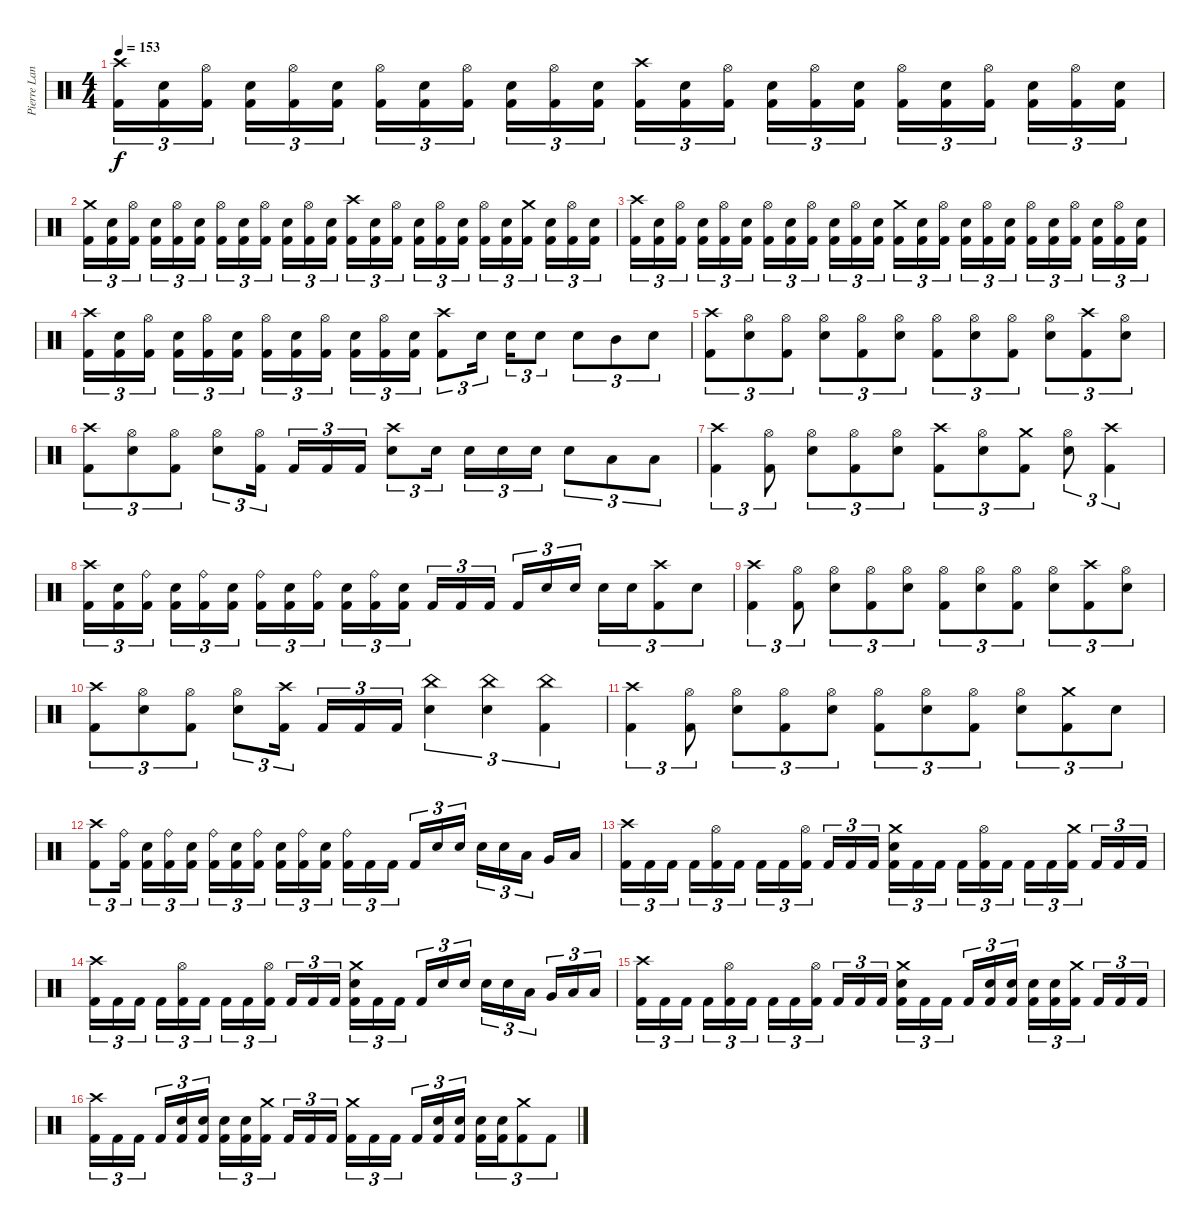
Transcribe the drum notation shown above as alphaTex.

\track ("Pierre Langlois (Drums)" "Pierre Lan") {instrument percussion}
\staff {score}
\articulation defaults
\ts (4 4)
\tempo 153
\clef neutral
\ks c
("Crash high (hit)" "Kick (hit) 2").16{tu (3 2) dy f} ("Snare (hit) 2" "Kick (hit) 2").16{tu (3 2)} ("Hi-Hat (open)" "Kick (hit) 2").16{tu (3 2)} ("Snare (hit) 2" "Kick (hit) 2").16{tu (3 2)} ("Hi-Hat (open)" "Kick (hit) 2").16{tu (3 2)} ("Snare (hit) 2" "Kick (hit) 2").16{tu (3 2)} ("Hi-Hat (open)" "Kick (hit) 2").16{tu (3 2)} ("Snare (hit) 2" "Kick (hit) 2").16{tu (3 2)} ("Hi-Hat (open)" "Kick (hit) 2").16{tu (3 2)} ("Snare (hit) 2" "Kick (hit) 2").16{tu (3 2)} ("Hi-Hat (open)" "Kick (hit) 2").16{tu (3 2)} ("Snare (hit) 2" "Kick (hit) 2").16{tu (3 2)} ("Crash high (hit)" "Kick (hit) 2").16{tu (3 2)} ("Snare (hit) 2" "Kick (hit) 2").16{tu (3 2)} ("Hi-Hat (open)" "Kick (hit) 2").16{tu (3 2)} ("Snare (hit) 2" "Kick (hit) 2").16{tu (3 2)} ("Hi-Hat (open)" "Kick (hit) 2").16{tu (3 2)} ("Snare (hit) 2" "Kick (hit) 2").16{tu (3 2)} ("Hi-Hat (open)" "Kick (hit) 2").16{tu (3 2)} ("Snare (hit) 2" "Kick (hit) 2").16{tu (3 2)} ("Hi-Hat (open)" "Kick (hit) 2").16{tu (3 2)} ("Snare (hit) 2" "Kick (hit) 2").16{tu (3 2)} ("Hi-Hat (open)" "Kick (hit) 2").16{tu (3 2)} ("Snare (hit) 2" "Kick (hit) 2").16{tu (3 2)} |
("Crash medium (hit)" "Kick (hit) 2").16{tu (3 2)} ("Snare (hit) 2" "Kick (hit) 2").16{tu (3 2)} ("Hi-Hat (open)" "Kick (hit) 2").16{tu (3 2)} ("Snare (hit) 2" "Kick (hit) 2").16{tu (3 2)} ("Hi-Hat (open)" "Kick (hit) 2").16{tu (3 2)} ("Snare (hit) 2" "Kick (hit) 2").16{tu (3 2)} ("Hi-Hat (open)" "Kick (hit) 2").16{tu (3 2)} ("Snare (hit) 2" "Kick (hit) 2").16{tu (3 2)} ("Hi-Hat (open)" "Kick (hit) 2").16{tu (3 2)} ("Snare (hit) 2" "Kick (hit) 2").16{tu (3 2)} ("Hi-Hat (open)" "Kick (hit) 2").16{tu (3 2)} ("Snare (hit) 2" "Kick (hit) 2").16{tu (3 2)} ("Crash high (hit)" "Kick (hit) 2").16{tu (3 2)} ("Snare (hit) 2" "Kick (hit) 2").16{tu (3 2)} ("Hi-Hat (open)" "Kick (hit) 2").16{tu (3 2)} ("Snare (hit) 2" "Kick (hit) 2").16{tu (3 2)} ("Hi-Hat (open)" "Kick (hit) 2").16{tu (3 2)} ("Snare (hit) 2" "Kick (hit) 2").16{tu (3 2)} ("Hi-Hat (open)" "Kick (hit) 2").16{tu (3 2)} ("Snare (hit) 2" "Kick (hit) 2").16{tu (3 2)} ("Crash medium (hit)" "Kick (hit) 2").16{tu (3 2)} ("Snare (hit) 2" "Kick (hit) 2").16{tu (3 2)} ("Hi-Hat (open)" "Kick (hit) 2").16{tu (3 2)} ("Snare (hit) 2" "Kick (hit) 2").16{tu (3 2)} |
("Crash high (hit)" "Kick (hit) 2").16{tu (3 2)} ("Snare (hit) 2" "Kick (hit) 2").16{tu (3 2)} ("Hi-Hat (open)" "Kick (hit) 2").16{tu (3 2)} ("Snare (hit) 2" "Kick (hit) 2").16{tu (3 2)} ("Hi-Hat (open)" "Kick (hit) 2").16{tu (3 2)} ("Snare (hit) 2" "Kick (hit) 2").16{tu (3 2)} ("Hi-Hat (open)" "Kick (hit) 2").16{tu (3 2)} ("Snare (hit) 2" "Kick (hit) 2").16{tu (3 2)} ("Hi-Hat (open)" "Kick (hit) 2").16{tu (3 2)} ("Snare (hit) 2" "Kick (hit) 2").16{tu (3 2)} ("Hi-Hat (open)" "Kick (hit) 2").16{tu (3 2)} ("Snare (hit) 2" "Kick (hit) 2").16{tu (3 2)} ("Crash medium (hit)" "Kick (hit) 2").16{tu (3 2)} ("Snare (hit) 2" "Kick (hit) 2").16{tu (3 2)} ("Hi-Hat (open)" "Kick (hit) 2").16{tu (3 2)} ("Snare (hit) 2" "Kick (hit) 2").16{tu (3 2)} ("Hi-Hat (open)" "Kick (hit) 2").16{tu (3 2)} ("Snare (hit) 2" "Kick (hit) 2").16{tu (3 2)} ("Hi-Hat (open)" "Kick (hit) 2").16{tu (3 2)} ("Snare (hit) 2" "Kick (hit) 2").16{tu (3 2)} ("Hi-Hat (open)" "Kick (hit) 2").16{tu (3 2)} ("Snare (hit) 2" "Kick (hit) 2").16{tu (3 2)} ("Hi-Hat (open)" "Kick (hit) 2").16{tu (3 2)} ("Snare (hit) 2" "Kick (hit) 2").16{tu (3 2)} |
("Crash high (hit)" "Kick (hit) 2").16{tu (3 2)} ("Snare (hit) 2" "Kick (hit) 2").16{tu (3 2)} ("Hi-Hat (open)" "Kick (hit) 2").16{tu (3 2)} ("Snare (hit) 2" "Kick (hit) 2").16{tu (3 2)} ("Hi-Hat (open)" "Kick (hit) 2").16{tu (3 2)} ("Snare (hit) 2" "Kick (hit) 2").16{tu (3 2)} ("Hi-Hat (open)" "Kick (hit) 2").16{tu (3 2)} ("Snare (hit) 2" "Kick (hit) 2").16{tu (3 2)} ("Hi-Hat (open)" "Kick (hit) 2").16{tu (3 2)} ("Snare (hit) 2" "Kick (hit) 2").16{tu (3 2)} ("Hi-Hat (open)" "Kick (hit) 2").16{tu (3 2)} ("Snare (hit) 2" "Kick (hit) 2").16{tu (3 2)} ("Crash high (hit)" "Kick (hit) 2").8{tu (3 2)} "Snare (hit) 2".16{tu (3 2)} "Snare (hit) 2".16{tu (3 2)} "Snare (hit) 2".8{tu (3 2)} "Snare (hit) 2".8{tu (3 2)} "Mid Tom (hit)".8{tu (3 2)} "Snare (hit) 2".8{tu (3 2)} |
("Crash high (hit)" "Kick (hit) 2").8{tu (3 2)} ("Hi-Hat (open)" "Snare (hit) 2").8{tu (3 2)} ("Hi-Hat (open)" "Kick (hit) 2").8{tu (3 2)} ("Hi-Hat (open)" "Snare (hit) 2").8{tu (3 2)} ("Hi-Hat (open)" "Kick (hit) 2").8{tu (3 2)} ("Hi-Hat (open)" "Snare (hit) 2").8{tu (3 2)} ("Hi-Hat (open)" "Kick (hit) 2").8{tu (3 2)} ("Hi-Hat (open)" "Snare (hit) 2").8{tu (3 2)} ("Hi-Hat (open)" "Kick (hit) 2").8{tu (3 2)} ("Hi-Hat (open)" "Snare (hit) 2").8{tu (3 2)} ("Crash high (hit)" "Kick (hit) 2").8{tu (3 2)} ("Hi-Hat (open)" "Snare (hit) 2").8{tu (3 2)} |
("Crash high (hit)" "Kick (hit) 2").8{tu (3 2)} ("Hi-Hat (open)" "Snare (hit) 2").8{tu (3 2)} ("Hi-Hat (open)" "Kick (hit) 2").8{tu (3 2)} ("Hi-Hat (open)" "Snare (hit) 2").8{tu (3 2)} ("Hi-Hat (open)" "Kick (hit) 2").16{tu (3 2)} "Kick (hit) 2".16{tu (3 2)} "Kick (hit) 2".16{tu (3 2)} "Kick (hit) 2".16{tu (3 2)} ("Crash high (hit)" "Snare (hit) 2").8{tu (3 2)} "Snare (hit) 2".16{tu (3 2)} "Snare (hit) 2".16{tu (3 2)} "Snare (hit) 2".16{tu (3 2)} "Snare (hit) 2".16{tu (3 2)} "Snare (hit) 2".8{tu (3 2)} "Low Tom (hit)".8{tu (3 2)} "Low Floor Tom (hit)".8{tu (3 2)} |
("Crash high (hit)" "Kick (hit) 2").4{tu (3 2)} ("Hi-Hat (open)" "Kick (hit) 2").8{tu (3 2)} ("Hi-Hat (open)" "Snare (hit) 2").8{tu (3 2)} ("Hi-Hat (open)" "Kick (hit) 2").8{tu (3 2)} ("Hi-Hat (open)" "Snare (hit) 2").8{tu (3 2)} ("Crash high (hit)" "Kick (hit) 2").8{tu (3 2)} ("Hi-Hat (open)" "Snare (hit) 2").8{tu (3 2)} ("Crash medium (hit)" "Kick (hit) 2").8{tu (3 2)} ("Hi-Hat (open)" "Snare (hit) 2").8{tu (3 2)} ("Crash high (hit)" "Kick (hit) 2").4{tu (3 2)} |
("Crash high (hit)" "Kick (hit) 2").16{tu (3 2)} ("Snare (hit) 2" "Kick (hit) 2").16{tu (3 2)} ("Ride (bell)" "Kick (hit) 2").16{tu (3 2)} ("Snare (hit) 2" "Kick (hit) 2").16{tu (3 2)} ("Ride (bell)" "Kick (hit) 2").16{tu (3 2)} ("Snare (hit) 2" "Kick (hit) 2").16{tu (3 2)} ("Ride (bell)" "Kick (hit) 2").16{tu (3 2)} ("Snare (hit) 2" "Kick (hit) 2").16{tu (3 2)} ("Ride (bell)" "Kick (hit) 2").16{tu (3 2)} ("Snare (hit) 2" "Kick (hit) 2").16{tu (3 2)} ("Ride (bell)" "Kick (hit) 2").16{tu (3 2)} ("Snare (hit) 2" "Kick (hit) 2").16{tu (3 2)} "Kick (hit) 2".16{tu (3 2)} "Kick (hit) 2".16{tu (3 2)} "Kick (hit) 2".16{tu (3 2)} "Kick (hit) 2".16{tu (3 2)} "Snare (hit) 2".16{tu (3 2)} "Snare (hit) 2".16{tu (3 2)} "Snare (hit) 2".16{tu (3 2)} "Snare (hit) 2".16{tu (3 2)} ("Crash high (hit)" "Kick (hit) 2").8{tu (3 2)} "Snare (hit) 2".8{tu (3 2)} |
("Crash high (hit)" "Kick (hit) 2").4{tu (3 2)} ("Hi-Hat (open)" "Kick (hit) 2").8{tu (3 2)} ("Hi-Hat (open)" "Snare (hit) 2").8{tu (3 2)} ("Hi-Hat (open)" "Kick (hit) 2").8{tu (3 2)} ("Hi-Hat (open)" "Snare (hit) 2").8{tu (3 2)} ("Hi-Hat (open)" "Kick (hit) 2").8{tu (3 2)} ("Hi-Hat (open)" "Snare (hit) 2").8{tu (3 2)} ("Hi-Hat (open)" "Kick (hit) 2").8{tu (3 2)} ("Hi-Hat (open)" "Snare (hit) 2").8{tu (3 2)} ("Crash high (hit)" "Kick (hit) 2").8{tu (3 2)} ("Hi-Hat (open)" "Snare (hit) 2").8{tu (3 2)} |
("Crash high (hit)" "Kick (hit) 2").8{tu (3 2)} ("Hi-Hat (open)" "Snare (hit) 2").8{tu (3 2)} ("Hi-Hat (open)" "Kick (hit) 2").8{tu (3 2)} ("Hi-Hat (open)" "Snare (hit) 2").8{tu (3 2)} ("Crash high (hit)" "Kick (hit) 2").16{tu (3 2)} "Kick (hit) 2".16{tu (3 2)} "Kick (hit) 2".16{tu (3 2)} "Kick (hit) 2".16{tu (3 2)} ("China (hit)" "Snare (hit) 2").4{tu (3 2)} ("China (hit)" "Snare (hit) 2").4{tu (3 2)} ("China (hit)" "Kick (hit) 2").4{tu (3 2)} |
("Crash high (hit)" "Kick (hit) 2").4{tu (3 2)} ("Hi-Hat (open)" "Kick (hit) 2").8{tu (3 2)} ("Hi-Hat (open)" "Snare (hit) 2").8{tu (3 2)} ("Hi-Hat (open)" "Kick (hit) 2").8{tu (3 2)} ("Hi-Hat (open)" "Snare (hit) 2").8{tu (3 2)} ("Hi-Hat (open)" "Kick (hit) 2").8{tu (3 2)} ("Hi-Hat (open)" "Snare (hit) 2").8{tu (3 2)} ("Hi-Hat (open)" "Kick (hit) 2").8{tu (3 2)} ("Hi-Hat (open)" "Snare (hit) 2").8{tu (3 2)} ("Crash medium (hit)" "Kick (hit) 2").8{tu (3 2)} "Snare (hit) 2".8{tu (3 2)} |
("Crash high (hit)" "Kick (hit) 2").8{tu (3 2)} ("Ride (bell)" "Kick (hit) 2").16{tu (3 2)} ("Snare (hit) 2" "Kick (hit) 2").16{tu (3 2)} ("Ride (bell)" "Kick (hit) 2").16{tu (3 2)} ("Snare (hit) 2" "Kick (hit) 2").16{tu (3 2)} ("Ride (bell)" "Kick (hit) 2").16{tu (3 2)} ("Snare (hit) 2" "Kick (hit) 2").16{tu (3 2)} ("Ride (bell)" "Kick (hit) 2").16{tu (3 2)} ("Snare (hit) 2" "Kick (hit) 2").16{tu (3 2)} ("Ride (bell)" "Kick (hit) 2").16{tu (3 2)} ("Snare (hit) 2" "Kick (hit) 2").16{tu (3 2)} ("Ride (bell)" "Kick (hit) 2").16{tu (3 2)} "Kick (hit) 2".16{tu (3 2)} "Kick (hit) 2".16{tu (3 2)} "Kick (hit) 2".16{tu (3 2)} "Snare (hit) 2".16{tu (3 2)} "Snare (hit) 2".16{tu (3 2)} "Snare (hit) 2".16{tu (3 2)} "Snare (hit) 2".16{tu (3 2)} "Low Tom (hit)".16{tu (3 2)} "Very Low Tom (hit)".16 "Low Floor Tom (hit)".16 |
("Crash high (hit)" "Kick (hit) 2").16{tu (3 2)} "Kick (hit) 2".16{tu (3 2)} "Kick (hit) 2".16{tu (3 2)} "Kick (hit) 2".16{tu (3 2)} ("Hi-Hat (open)" "Kick (hit) 2").16{tu (3 2)} "Kick (hit) 2".16{tu (3 2)} "Kick (hit) 2".16{tu (3 2)} "Kick (hit) 2".16{tu (3 2)} ("Hi-Hat (open)" "Kick (hit) 2").16{tu (3 2)} "Kick (hit) 2".16{tu (3 2)} "Kick (hit) 2".16{tu (3 2)} "Kick (hit) 2".16{tu (3 2)} ("Crash medium (hit)" "Snare (hit) 2" "Kick (hit) 2").16{tu (3 2)} "Kick (hit) 2".16{tu (3 2)} "Kick (hit) 2".16{tu (3 2)} "Kick (hit) 2".16{tu (3 2)} ("Hi-Hat (open)" "Kick (hit) 2").16{tu (3 2)} "Kick (hit) 2".16{tu (3 2)} "Kick (hit) 2".16{tu (3 2)} "Kick (hit) 2".16{tu (3 2)} ("Crash medium (hit)" "Kick (hit) 2").16{tu (3 2)} "Kick (hit) 2".16{tu (3 2)} "Kick (hit) 2".16{tu (3 2)} "Kick (hit) 2".16{tu (3 2)} |
("Crash high (hit)" "Kick (hit) 2").16{tu (3 2)} "Kick (hit) 2".16{tu (3 2)} "Kick (hit) 2".16{tu (3 2)} "Kick (hit) 2".16{tu (3 2)} ("Hi-Hat (open)" "Kick (hit) 2").16{tu (3 2)} "Kick (hit) 2".16{tu (3 2)} "Kick (hit) 2".16{tu (3 2)} "Kick (hit) 2".16{tu (3 2)} ("Hi-Hat (open)" "Kick (hit) 2").16{tu (3 2)} "Kick (hit) 2".16{tu (3 2)} "Kick (hit) 2".16{tu (3 2)} "Kick (hit) 2".16{tu (3 2)} ("Crash medium (hit)" "Snare (hit) 2" "Kick (hit) 2").16{tu (3 2)} "Kick (hit) 2".16{tu (3 2)} "Kick (hit) 2".16{tu (3 2)} "Kick (hit) 2".16{tu (3 2)} "Snare (hit) 2".16{tu (3 2)} "Snare (hit) 2".16{tu (3 2)} "Snare (hit) 2".16{tu (3 2)} "Snare (hit) 2".16{tu (3 2)} "Low Tom (hit)".16{tu (3 2)} "Very Low Tom (hit)".16{tu (3 2)} "Low Floor Tom (hit)".16{tu (3 2)} "Low Floor Tom (hit)".16{tu (3 2)} |
("Crash high (hit)" "Kick (hit) 2").16{tu (3 2)} "Kick (hit) 2".16{tu (3 2)} "Kick (hit) 2".16{tu (3 2)} "Kick (hit) 2".16{tu (3 2)} ("Hi-Hat (open)" "Kick (hit) 2").16{tu (3 2)} "Kick (hit) 2".16{tu (3 2)} "Kick (hit) 2".16{tu (3 2)} "Kick (hit) 2".16{tu (3 2)} ("Hi-Hat (open)" "Kick (hit) 2").16{tu (3 2)} "Kick (hit) 2".16{tu (3 2)} "Kick (hit) 2".16{tu (3 2)} "Kick (hit) 2".16{tu (3 2)} ("Crash medium (hit)" "Snare (hit) 2" "Kick (hit) 2").16{tu (3 2)} "Kick (hit) 2".16{tu (3 2)} "Kick (hit) 2".16{tu (3 2)} "Kick (hit) 2".16{tu (3 2)} ("Snare (hit) 2" "Kick (hit) 2").16{tu (3 2)} ("Snare (hit) 2" "Kick (hit) 2").16{tu (3 2)} ("Snare (hit) 2" "Kick (hit) 2").16{tu (3 2)} ("Snare (hit) 2" "Kick (hit) 2").16{tu (3 2)} ("Crash medium (hit)" "Kick (hit) 2").16{tu (3 2)} "Kick (hit) 2".16{tu (3 2)} "Kick (hit) 2".16{tu (3 2)} "Kick (hit) 2".16{tu (3 2)} |
("Crash high (hit)" "Kick (hit) 2").16{tu (3 2)} "Kick (hit) 2".16{tu (3 2)} "Kick (hit) 2".16{tu (3 2)} "Kick (hit) 2".16{tu (3 2)} ("Snare (hit) 2" "Kick (hit) 2").16{tu (3 2)} ("Snare (hit) 2" "Kick (hit) 2").16{tu (3 2)} ("Snare (hit) 2" "Kick (hit) 2").16{tu (3 2)} ("Snare (hit) 2" "Kick (hit) 2").16{tu (3 2)} ("Crash medium (hit)" "Kick (hit) 2").16{tu (3 2)} "Kick (hit) 2".16{tu (3 2)} "Kick (hit) 2".16{tu (3 2)} "Kick (hit) 2".16{tu (3 2)} ("Crash medium (hit)" "Kick (hit) 2").16{tu (3 2)} "Kick (hit) 2".16{tu (3 2)} "Kick (hit) 2".16{tu (3 2)} "Kick (hit) 2".16{tu (3 2)} ("Snare (hit) 2" "Kick (hit) 2").16{tu (3 2)} ("Snare (hit) 2" "Kick (hit) 2").16{tu (3 2)} ("Snare (hit) 2" "Kick (hit) 2").16{tu (3 2)} ("Snare (hit) 2" "Kick (hit) 2").16{tu (3 2)} ("Crash medium (hit)" "Kick (hit) 2").8{tu (3 2)} "Kick (hit) 2".8{tu (3 2)}
